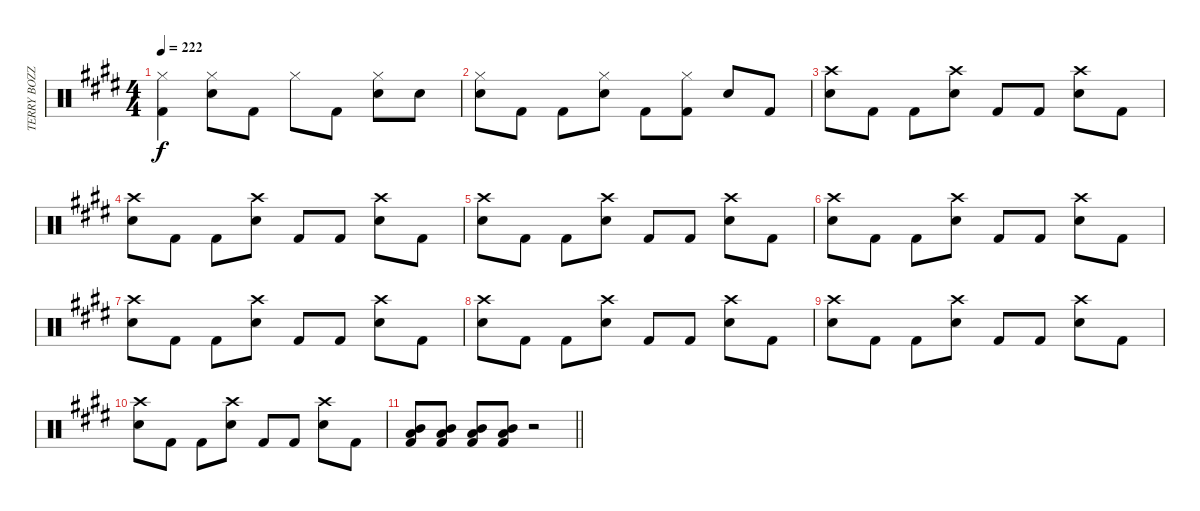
\track ("TERRY BOZZIO" "TERRY BOZZ") {instrument percussion}
\staff {score}
\articulation defaults
\ts (4 4)
\tempo 222
\clef neutral
\ks c#minor
("Hi-Hat (closed)" "Kick (hit) 2").4{dy f} ("Hi-Hat (closed)" "Snare (hit) 2").8 "Kick (hit) 2".8 "Hi-Hat (closed)".8 "Kick (hit) 2".8 ("Hi-Hat (closed)" "Snare (hit) 2").8 "Snare (hit) 2".8 |
("Hi-Hat (closed)" "Snare (hit) 2").8 "Kick (hit) 2".8 "Kick (hit) 2".8 ("Hi-Hat (closed)" "Snare (hit) 2").8 "Kick (hit) 2".8 ("Kick (hit) 2" "Hi-Hat (closed)").8 "Snare (hit) 2".8 "Kick (hit) 2".8 |
("Crash high (hit)" "Snare (hit) 2").8 "Kick (hit) 2".8 "Kick (hit) 2".8 ("Crash high (hit)" "Snare (hit) 2").8 "Kick (hit) 2".8 "Kick (hit) 2".8 ("Snare (hit) 2" "Crash high (hit)").8 "Kick (hit) 2".8 |
("Crash high (hit)" "Snare (hit) 2").8 "Kick (hit) 2".8 "Kick (hit) 2".8 ("Crash high (hit)" "Snare (hit) 2").8 "Kick (hit) 2".8 "Kick (hit) 2".8 ("Snare (hit) 2" "Crash high (hit)").8 "Kick (hit) 2".8 |
("Crash high (hit)" "Snare (hit) 2").8 "Kick (hit) 2".8 "Kick (hit) 2".8 ("Crash high (hit)" "Snare (hit) 2").8 "Kick (hit) 2".8 "Kick (hit) 2".8 ("Snare (hit) 2" "Crash high (hit)").8 "Kick (hit) 2".8 |
("Crash high (hit)" "Snare (hit) 2").8 "Kick (hit) 2".8 "Kick (hit) 2".8 ("Crash high (hit)" "Snare (hit) 2").8 "Kick (hit) 2".8 "Kick (hit) 2".8 ("Snare (hit) 2" "Crash high (hit)").8 "Kick (hit) 2".8 |
("Crash high (hit)" "Snare (hit) 2").8 "Kick (hit) 2".8 "Kick (hit) 2".8 ("Crash high (hit)" "Snare (hit) 2").8 "Kick (hit) 2".8 "Kick (hit) 2".8 ("Snare (hit) 2" "Crash high (hit)").8 "Kick (hit) 2".8 |
("Crash high (hit)" "Snare (hit) 2").8 "Kick (hit) 2".8 "Kick (hit) 2".8 ("Crash high (hit)" "Snare (hit) 2").8 "Kick (hit) 2".8 "Kick (hit) 2".8 ("Snare (hit) 2" "Crash high (hit)").8 "Kick (hit) 2".8 |
("Crash high (hit)" "Snare (hit) 2").8 "Kick (hit) 2".8 "Kick (hit) 2".8 ("Crash high (hit)" "Snare (hit) 2").8 "Kick (hit) 2".8 "Kick (hit) 2".8 ("Snare (hit) 2" "Crash high (hit)").8 "Kick (hit) 2".8 |
("Crash high (hit)" "Snare (hit) 2").8 "Kick (hit) 2".8 "Kick (hit) 2".8 ("Crash high (hit)" "Snare (hit) 2").8 "Kick (hit) 2".8 "Kick (hit) 2".8 ("Snare (hit) 2" "Crash high (hit)").8 "Kick (hit) 2".8 |
\barLineRight lightlight
("Low Tom (hit)" "Mid Tom (hit)" "Kick (hit) 2").8 ("Low Tom (hit)" "Mid Tom (hit)" "Kick (hit) 2").8 ("Low Tom (hit)" "Mid Tom (hit)" "Kick (hit) 2").8 ("Low Tom (hit)" "Mid Tom (hit)" "Kick (hit) 2").8 r.2
